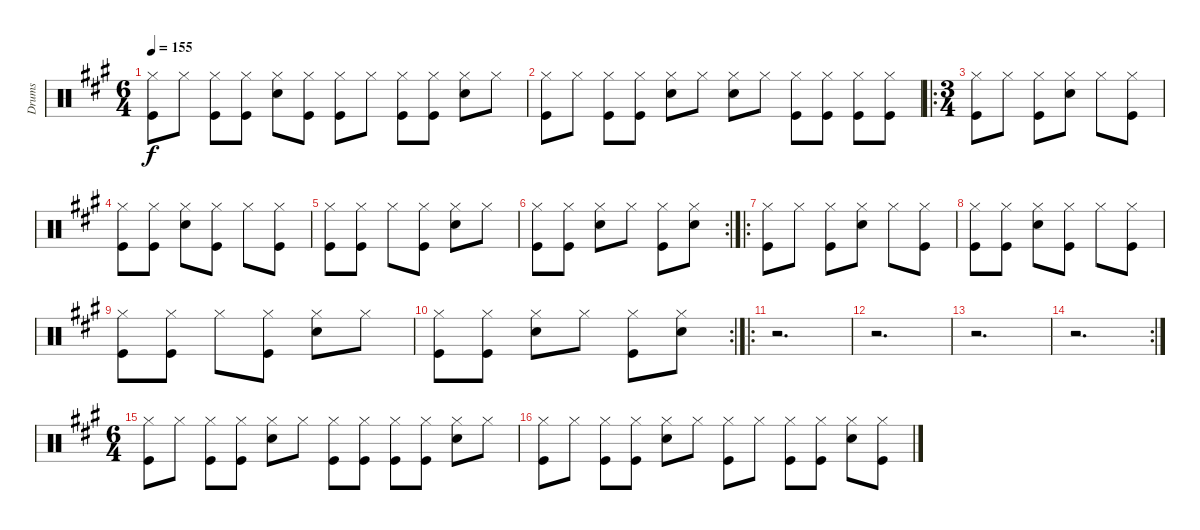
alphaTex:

\track ("Drums" "Drums") {instrument percussion}
\staff {score}
\articulation defaults
\ts (6 4)
\tempo 155
\clef neutral
\ks a
("Hi-Hat (closed)" "Kick (hit)").8{dy f} "Hi-Hat (closed)".8 ("Hi-Hat (closed)" "Kick (hit)").8 ("Hi-Hat (closed)" "Kick (hit)").8 ("Hi-Hat (closed)" "Snare (hit) 2").8 ("Hi-Hat (closed)" "Kick (hit)").8 ("Hi-Hat (closed)" "Kick (hit)").8 "Hi-Hat (closed)".8 ("Hi-Hat (closed)" "Kick (hit)").8 ("Hi-Hat (closed)" "Kick (hit)").8 ("Hi-Hat (closed)" "Snare (hit) 2").8 "Hi-Hat (closed)".8 |
("Hi-Hat (closed)" "Kick (hit)").8 "Hi-Hat (closed)".8 ("Hi-Hat (closed)" "Kick (hit)").8 ("Hi-Hat (closed)" "Kick (hit)").8 ("Hi-Hat (closed)" "Snare (hit) 2").8 "Hi-Hat (closed)".8 ("Hi-Hat (closed)" "Snare (hit) 2").8 "Hi-Hat (closed)".8 ("Hi-Hat (closed)" "Kick (hit)").8 ("Hi-Hat (closed)" "Kick (hit)").8 ("Hi-Hat (closed)" "Kick (hit)").8 ("Hi-Hat (closed)" "Kick (hit)").8 |
\ro
\ts (3 4)
("Hi-Hat (closed)" "Kick (hit)").8 "Hi-Hat (closed)".8 ("Hi-Hat (closed)" "Kick (hit)").8 ("Hi-Hat (closed)" "Snare (hit) 2").8 "Hi-Hat (closed)".8 ("Hi-Hat (closed)" "Kick (hit)").8 |
("Hi-Hat (closed)" "Kick (hit)").8 ("Hi-Hat (closed)" "Kick (hit)").8 ("Hi-Hat (closed)" "Snare (hit) 2").8 ("Hi-Hat (closed)" "Kick (hit)").8 "Hi-Hat (closed)".8 ("Hi-Hat (closed)" "Kick (hit)").8 |
("Hi-Hat (closed)" "Kick (hit)").8 ("Hi-Hat (closed)" "Kick (hit)").8 "Hi-Hat (closed)".8 ("Hi-Hat (closed)" "Kick (hit)").8 ("Hi-Hat (closed)" "Snare (hit) 2").8 "Hi-Hat (closed)".8 |
\rc 2
("Hi-Hat (closed)" "Kick (hit)").8 ("Hi-Hat (closed)" "Kick (hit)").8 ("Hi-Hat (closed)" "Snare (hit) 2").8 "Hi-Hat (closed)".8 ("Hi-Hat (closed)" "Kick (hit)").8 ("Hi-Hat (closed)" "Snare (hit) 2").8 |
\ro
("Hi-Hat (closed)" "Kick (hit)").8 "Hi-Hat (closed)".8 ("Hi-Hat (closed)" "Kick (hit)").8 ("Hi-Hat (closed)" "Snare (hit) 2").8 "Hi-Hat (closed)".8 ("Hi-Hat (closed)" "Kick (hit)").8 |
("Hi-Hat (closed)" "Kick (hit)").8 ("Hi-Hat (closed)" "Kick (hit)").8 ("Hi-Hat (closed)" "Snare (hit) 2").8 ("Hi-Hat (closed)" "Kick (hit)").8 "Hi-Hat (closed)".8 ("Hi-Hat (closed)" "Kick (hit)").8 |
("Hi-Hat (closed)" "Kick (hit)").8 ("Hi-Hat (closed)" "Kick (hit)").8 "Hi-Hat (closed)".8 ("Hi-Hat (closed)" "Kick (hit)").8 ("Hi-Hat (closed)" "Snare (hit) 2").8 "Hi-Hat (closed)".8 |
\rc 2
("Hi-Hat (closed)" "Kick (hit)").8 ("Hi-Hat (closed)" "Kick (hit)").8 ("Hi-Hat (closed)" "Snare (hit) 2").8 "Hi-Hat (closed)".8 ("Hi-Hat (closed)" "Kick (hit)").8 ("Hi-Hat (closed)" "Snare (hit) 2").8 |
\ro
r.2{d} |
r.2{d} |
r.2{d} |
\rc 2
r.2{d} |
\ts (6 4)
("Hi-Hat (closed)" "Kick (hit)").8 "Hi-Hat (closed)".8 ("Hi-Hat (closed)" "Kick (hit)").8 ("Hi-Hat (closed)" "Kick (hit)").8 ("Hi-Hat (closed)" "Snare (hit) 2").8 "Hi-Hat (closed)".8 ("Hi-Hat (closed)" "Kick (hit)").8 ("Hi-Hat (closed)" "Kick (hit)").8 ("Hi-Hat (closed)" "Kick (hit)").8 ("Hi-Hat (closed)" "Kick (hit)").8 ("Hi-Hat (closed)" "Snare (hit) 2").8 "Hi-Hat (closed)".8 |
("Hi-Hat (closed)" "Kick (hit)").8 "Hi-Hat (closed)".8 ("Hi-Hat (closed)" "Kick (hit)").8 ("Hi-Hat (closed)" "Kick (hit)").8 ("Hi-Hat (closed)" "Snare (hit) 2").8 "Hi-Hat (closed)".8 ("Hi-Hat (closed)" "Kick (hit)").8 "Hi-Hat (closed)".8 ("Hi-Hat (closed)" "Kick (hit)").8 ("Hi-Hat (closed)" "Kick (hit)").8 ("Hi-Hat (closed)" "Snare (hit) 2").8 ("Hi-Hat (closed)" "Kick (hit)").8
